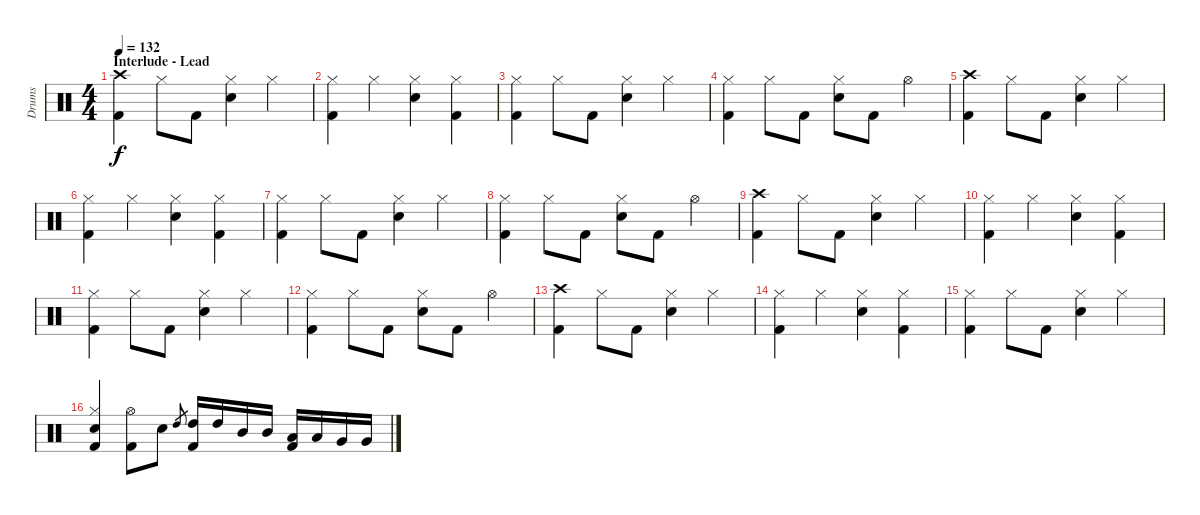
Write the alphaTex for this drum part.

\track ("Drums" "Drums") {instrument percussion}
\staff {score}
\articulation defaults
\ts (4 4)
\section ("" "Interlude - Lead")
\tempo 132
\clef neutral
\ks c
("Crash high (hit)" "Kick (hit) 2").4{dy f} "Hi-Hat (closed)".8 "Kick (hit) 2".8 ("Hi-Hat (closed)" "Snare (hit) 2").4 "Hi-Hat (closed)".4 |
("Hi-Hat (closed)" "Kick (hit) 2").4 "Hi-Hat (closed)".4 ("Hi-Hat (closed)" "Snare (hit) 2").4 ("Hi-Hat (closed)" "Kick (hit) 2").4 |
("Hi-Hat (closed)" "Kick (hit) 2").4 "Hi-Hat (closed)".8 "Kick (hit) 2".8 ("Hi-Hat (closed)" "Snare (hit) 2").4 "Hi-Hat (closed)".4 |
("Hi-Hat (closed)" "Kick (hit) 2").4 "Hi-Hat (closed)".8 "Kick (hit) 2".8 ("Hi-Hat (closed)" "Snare (hit) 2").8 "Kick (hit) 2".8 "Hi-Hat (open)".4 |
("Crash high (hit)" "Kick (hit) 2").4 "Hi-Hat (closed)".8 "Kick (hit) 2".8 ("Hi-Hat (closed)" "Snare (hit) 2").4 "Hi-Hat (closed)".4 |
("Hi-Hat (closed)" "Kick (hit) 2").4 "Hi-Hat (closed)".4 ("Hi-Hat (closed)" "Snare (hit) 2").4 ("Hi-Hat (closed)" "Kick (hit) 2").4 |
("Hi-Hat (closed)" "Kick (hit) 2").4 "Hi-Hat (closed)".8 "Kick (hit) 2".8 ("Hi-Hat (closed)" "Snare (hit) 2").4 "Hi-Hat (closed)".4 |
("Hi-Hat (closed)" "Kick (hit) 2").4 "Hi-Hat (closed)".8 "Kick (hit) 2".8 ("Hi-Hat (closed)" "Snare (hit) 2").8 "Kick (hit) 2".8 "Hi-Hat (open)".4 |
("Crash high (hit)" "Kick (hit) 2").4 "Hi-Hat (closed)".8 "Kick (hit) 2".8 ("Hi-Hat (closed)" "Snare (hit) 2").4 "Hi-Hat (closed)".4 |
("Hi-Hat (closed)" "Kick (hit) 2").4 "Hi-Hat (closed)".4 ("Hi-Hat (closed)" "Snare (hit) 2").4 ("Hi-Hat (closed)" "Kick (hit) 2").4 |
("Hi-Hat (closed)" "Kick (hit) 2").4 "Hi-Hat (closed)".8 "Kick (hit) 2".8 ("Hi-Hat (closed)" "Snare (hit) 2").4 "Hi-Hat (closed)".4 |
("Hi-Hat (closed)" "Kick (hit) 2").4 "Hi-Hat (closed)".8 "Kick (hit) 2".8 ("Hi-Hat (closed)" "Snare (hit) 2").8 "Kick (hit) 2".8 "Hi-Hat (open)".4 |
("Crash high (hit)" "Kick (hit) 2").4 "Hi-Hat (closed)".8 "Kick (hit) 2".8 ("Hi-Hat (closed)" "Snare (hit) 2").4 "Hi-Hat (closed)".4 |
("Hi-Hat (closed)" "Kick (hit) 2").4 "Hi-Hat (closed)".4 ("Hi-Hat (closed)" "Snare (hit) 2").4 ("Hi-Hat (closed)" "Kick (hit) 2").4 |
("Hi-Hat (closed)" "Kick (hit) 2").4 "Hi-Hat (closed)".8 "Kick (hit) 2".8 ("Hi-Hat (closed)" "Snare (hit) 2").4 "Hi-Hat (closed)".4 |
("Hi-Hat (closed)" "Snare (hit) 2" "Kick (hit) 2").4 ("Hi-Hat (open)" "Kick (hit) 2").8 "Snare (hit) 2".8 "High Tom (hit)".8{gr} ("High Tom (hit)" "Kick (hit) 2").16 "High Tom (hit)".16 "Mid Tom (hit)".16 "Mid Tom (hit)".16 ("Low Tom (hit)" "Kick (hit) 2").16 "Low Tom (hit)".16 "Very Low Tom (hit)".16 "Very Low Tom (hit)".16
